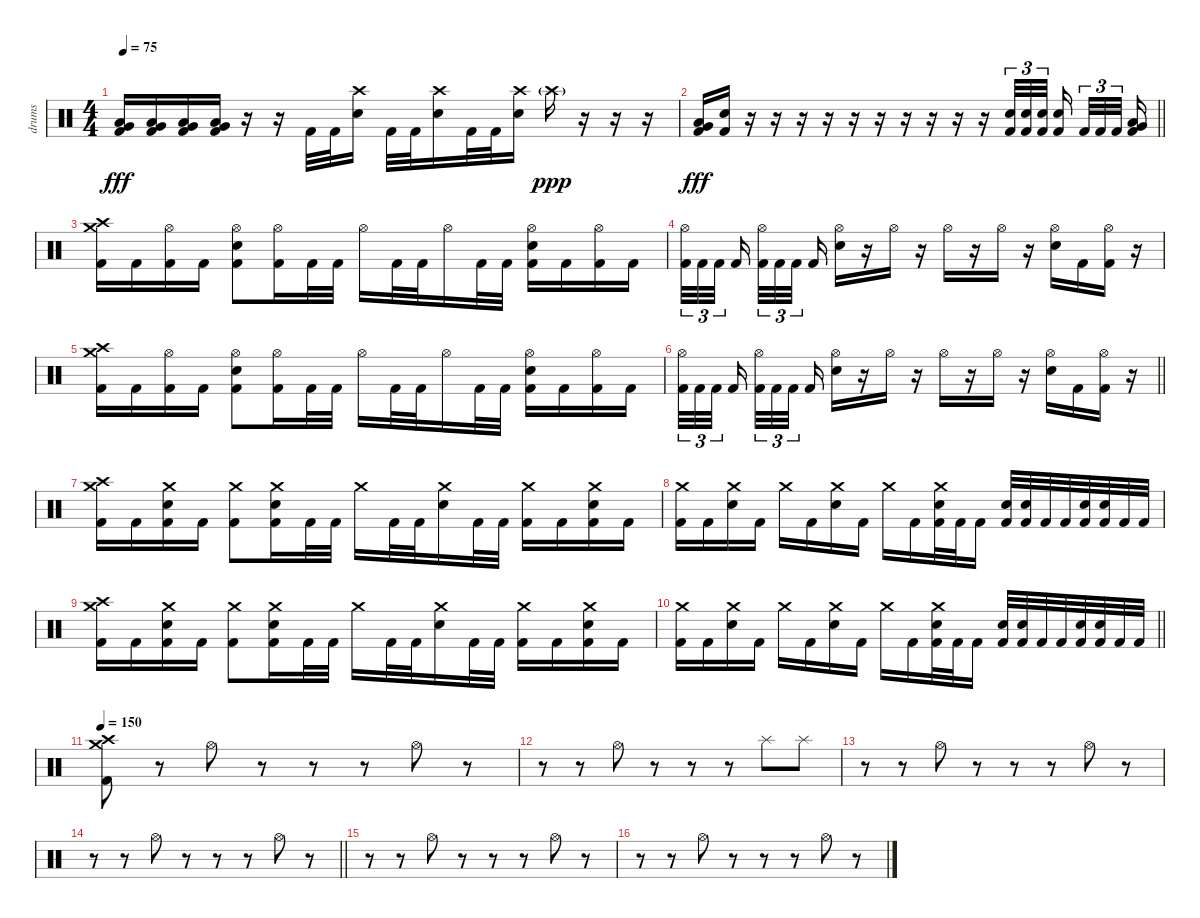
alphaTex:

\track ("drums" "drums") {instrument percussion}
\staff {score}
\articulation defaults
\ts (4 4)
\section ("" "")
\tempo 75
\clef neutral
\ks c
("Very Low Tom (hit)" "Low Floor Tom (hit)" "Kick (hit) 2").16{dy fff} ("Very Low Tom (hit)" "Low Floor Tom (hit)" "Kick (hit) 2").16 ("Very Low Tom (hit)" "Low Floor Tom (hit)" "Kick (hit) 2").16 ("Very Low Tom (hit)" "Low Floor Tom (hit)" "Kick (hit) 2").16 r.16 r.16 "Kick (hit) 2".32 "Kick (hit) 2".32 ("Crash high (hit)" "Electric Snare (hit)").16 "Kick (hit) 2".32 "Kick (hit) 2".32 ("Crash high (hit)" "Electric Snare (hit)").16 "Kick (hit) 2".32 "Kick (hit) 2".32 ("Crash high (hit)" "Electric Snare (hit)").16 "Crash high (hit)"{g}.16{dy ppp} r.16 r.16 r.16 |
\barLineRight lightlight
("Very Low Tom (hit)" "Low Floor Tom (hit)" "Kick (hit) 2").16{dy fff} ("Electric Snare (hit)" "Kick (hit) 2").16 r.16 r.16 r.16 r.16 r.16 r.16 r.16 r.16 r.16 r.16 ("Electric Snare (hit)" "Kick (hit) 2").32{tu (3 2)} ("Electric Snare (hit)" "Kick (hit) 2").32{tu (3 2)} ("Electric Snare (hit)" "Kick (hit) 2").32{tu (3 2) beam splitsecondary} ("Electric Snare (hit)" "Kick (hit) 2").16{beam splitsecondary} "Kick (hit) 2".32{tu (3 2)} "Kick (hit) 2".32{tu (3 2)} "Kick (hit) 2".32{tu (3 2) beam splitsecondary} ("Very Low Tom (hit)" "Low Floor Tom (hit)" "Kick (hit) 2").16 |
\section ("" "")
("Crash high (hit)" "Crash medium (hit)" "Kick (hit) 2").16 "Kick (hit) 2".16 ("Hi-Hat (open)" "Kick (hit) 2").16 "Kick (hit) 2".16 ("Hi-Hat (open)" "Electric Snare (hit)" "Kick (hit) 2").8 ("Hi-Hat (open)" "Kick (hit) 2").16 "Kick (hit) 2".32 "Kick (hit) 2".32 "Hi-Hat (open)".16 "Kick (hit) 2".32 "Kick (hit) 2".32 "Hi-Hat (open)".16 "Kick (hit) 2".32 "Kick (hit) 2".32 ("Hi-Hat (open)" "Electric Snare (hit)" "Kick (hit) 2").16 "Kick (hit) 2".16 ("Hi-Hat (open)" "Kick (hit) 2").16 "Kick (hit) 2".16 |
("Hi-Hat (open)" "Kick (hit) 2").32{tu (3 2)} "Kick (hit) 2".32{tu (3 2)} "Kick (hit) 2".32{tu (3 2) beam splitsecondary} "Kick (hit) 2".16{beam splitsecondary} ("Hi-Hat (open)" "Kick (hit) 2").32{tu (3 2)} "Kick (hit) 2".32{tu (3 2)} "Kick (hit) 2".32{tu (3 2) beam splitsecondary} "Kick (hit) 2".16 ("Hi-Hat (open)" "Electric Snare (hit)").16 r.16 "Hi-Hat (open)".16 r.16 "Hi-Hat (open)".16 r.16 "Hi-Hat (open)".16 r.16 ("Hi-Hat (open)" "Electric Snare (hit)").16 "Kick (hit) 2".16 ("Hi-Hat (open)" "Kick (hit) 2").16 r.16 |
("Crash high (hit)" "Crash medium (hit)" "Kick (hit) 2").16 "Kick (hit) 2".16 ("Hi-Hat (open)" "Kick (hit) 2").16 "Kick (hit) 2".16 ("Hi-Hat (open)" "Electric Snare (hit)" "Kick (hit) 2").8 ("Hi-Hat (open)" "Kick (hit) 2").16 "Kick (hit) 2".32 "Kick (hit) 2".32 "Hi-Hat (open)".16 "Kick (hit) 2".32 "Kick (hit) 2".32 "Hi-Hat (open)".16 "Kick (hit) 2".32 "Kick (hit) 2".32 ("Hi-Hat (open)" "Electric Snare (hit)" "Kick (hit) 2").16 "Kick (hit) 2".16 ("Hi-Hat (open)" "Kick (hit) 2").16 "Kick (hit) 2".16 |
\barLineRight lightlight
("Hi-Hat (open)" "Kick (hit) 2").32{tu (3 2)} "Kick (hit) 2".32{tu (3 2)} "Kick (hit) 2".32{tu (3 2) beam splitsecondary} "Kick (hit) 2".16{beam splitsecondary} ("Hi-Hat (open)" "Kick (hit) 2").32{tu (3 2)} "Kick (hit) 2".32{tu (3 2)} "Kick (hit) 2".32{tu (3 2) beam splitsecondary} "Kick (hit) 2".16 ("Hi-Hat (open)" "Electric Snare (hit)").16 r.16 "Hi-Hat (open)".16 r.16 "Hi-Hat (open)".16 r.16 "Hi-Hat (open)".16 r.16 ("Hi-Hat (open)" "Electric Snare (hit)").16 "Kick (hit) 2".16 ("Hi-Hat (open)" "Kick (hit) 2").16 r.16 |
\section ("" "")
("Crash high (hit)" "Crash medium (hit)" "Kick (hit) 2").16 "Kick (hit) 2".16 ("Crash medium (hit)" "Electric Snare (hit)" "Kick (hit) 2").16 "Kick (hit) 2".16 ("Crash medium (hit)" "Kick (hit) 2").8 ("Crash medium (hit)" "Electric Snare (hit)" "Kick (hit) 2").16 "Kick (hit) 2".32 "Kick (hit) 2".32 "Crash medium (hit)".16 "Kick (hit) 2".32 "Kick (hit) 2".32 ("Crash medium (hit)" "Electric Snare (hit)").16 "Kick (hit) 2".32 "Kick (hit) 2".32 ("Crash medium (hit)" "Kick (hit) 2").16 "Kick (hit) 2".16 ("Crash medium (hit)" "Electric Snare (hit)" "Kick (hit) 2").16 "Kick (hit) 2".16 |
("Crash medium (hit)" "Kick (hit) 2").16 "Kick (hit) 2".16 ("Crash medium (hit)" "Electric Snare (hit)").16 "Kick (hit) 2".16 "Crash medium (hit)".16 "Kick (hit) 2".16 ("Crash medium (hit)" "Electric Snare (hit)").16 "Kick (hit) 2".16 "Crash medium (hit)".16 "Kick (hit) 2".16 ("Crash medium (hit)" "Electric Snare (hit)" "Kick (hit) 2").32 "Kick (hit) 2".32 "Kick (hit) 2".16 ("Electric Snare (hit)" "Kick (hit) 2").32 ("Electric Snare (hit)" "Kick (hit) 2").32 "Kick (hit) 2".32 "Kick (hit) 2".32 ("Electric Snare (hit)" "Kick (hit) 2").32 ("Electric Snare (hit)" "Kick (hit) 2").32 "Kick (hit) 2".32 "Kick (hit) 2".32 |
("Crash high (hit)" "Crash medium (hit)" "Kick (hit) 2").16 "Kick (hit) 2".16 ("Crash medium (hit)" "Electric Snare (hit)" "Kick (hit) 2").16 "Kick (hit) 2".16 ("Crash medium (hit)" "Kick (hit) 2").8 ("Crash medium (hit)" "Electric Snare (hit)" "Kick (hit) 2").16 "Kick (hit) 2".32 "Kick (hit) 2".32 "Crash medium (hit)".16 "Kick (hit) 2".32 "Kick (hit) 2".32 ("Crash medium (hit)" "Electric Snare (hit)").16 "Kick (hit) 2".32 "Kick (hit) 2".32 ("Crash medium (hit)" "Kick (hit) 2").16 "Kick (hit) 2".16 ("Crash medium (hit)" "Electric Snare (hit)" "Kick (hit) 2").16 "Kick (hit) 2".16 |
\barLineRight lightlight
("Crash medium (hit)" "Kick (hit) 2").16 "Kick (hit) 2".16 ("Crash medium (hit)" "Electric Snare (hit)").16 "Kick (hit) 2".16 "Crash medium (hit)".16 "Kick (hit) 2".16 ("Crash medium (hit)" "Electric Snare (hit)").16 "Kick (hit) 2".16 "Crash medium (hit)".16 "Kick (hit) 2".16 ("Crash medium (hit)" "Electric Snare (hit)" "Kick (hit) 2").32 "Kick (hit) 2".32 "Kick (hit) 2".16 ("Electric Snare (hit)" "Kick (hit) 2").32 ("Electric Snare (hit)" "Kick (hit) 2").32 "Kick (hit) 2".32 "Kick (hit) 2".32 ("Electric Snare (hit)" "Kick (hit) 2").32 ("Electric Snare (hit)" "Kick (hit) 2").32 "Kick (hit) 2".32 "Kick (hit) 2".32 |
\section ("" "")
\tempo 150
("Crash high (hit)" "Crash medium (hit)" "Kick (hit) 2").8 r.8 "Hi-Hat (open)".8 r.8 r.8 r.8 "Hi-Hat (open)".8 r.8 |
r.8 r.8 "Hi-Hat (open)".8 r.8 r.8 r.8 "Splash (hit)".8 "Splash (hit)".8 |
r.8 r.8 "Hi-Hat (open)".8 r.8 r.8 r.8 "Hi-Hat (open)".8 r.8 |
\barLineRight lightlight
r.8 r.8 "Hi-Hat (open)".8 r.8 r.8 r.8 "Hi-Hat (open)".8 r.8 |
r.8 r.8 "Hi-Hat (open)".8 r.8 r.8 r.8 "Hi-Hat (open)".8 r.8 |
r.8 r.8 "Hi-Hat (open)".8 r.8 r.8 r.8 "Hi-Hat (open)".8 r.8
